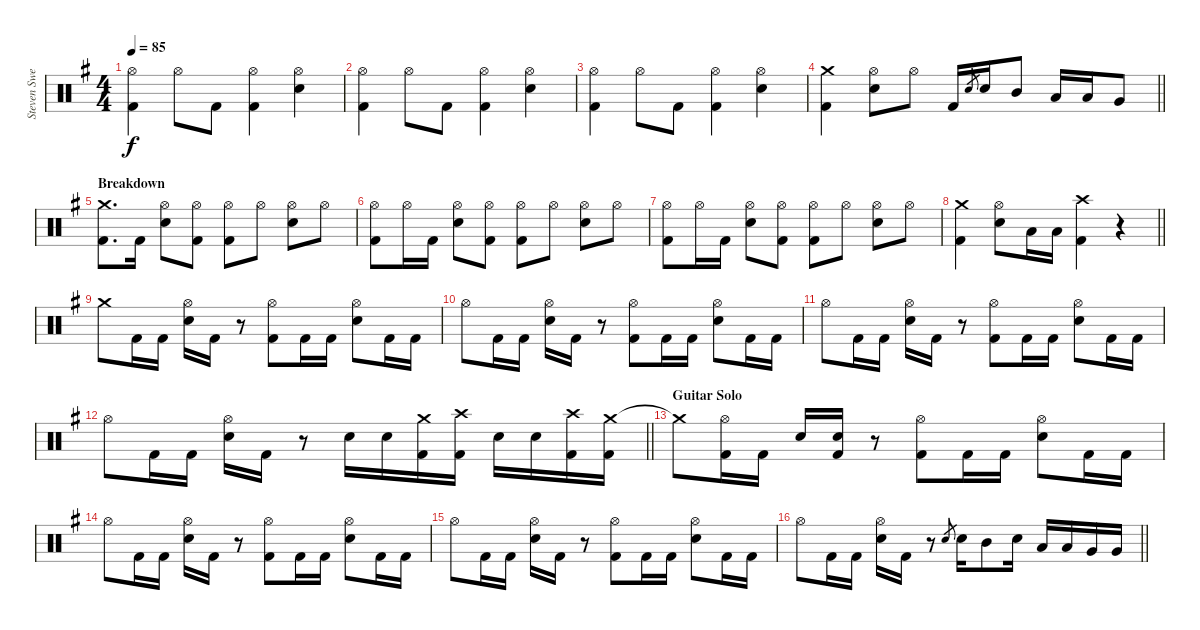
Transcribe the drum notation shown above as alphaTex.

\track ("Steven Sweet" "Steven Swe") {instrument percussion}
\staff {score}
\articulation defaults
\ts (4 4)
\tempo 85
\clef neutral
\ks g
("Hi-Hat (open)" "Kick (hit) 2").4{dy f} "Hi-Hat (open)".8 "Kick (hit) 2".8 ("Hi-Hat (open)" "Kick (hit) 2").4 ("Hi-Hat (open)" "Snare (hit) 2").4 |
("Hi-Hat (open)" "Kick (hit) 2").4 "Hi-Hat (open)".8 "Kick (hit) 2".8 ("Hi-Hat (open)" "Kick (hit) 2").4 ("Hi-Hat (open)" "Snare (hit) 2").4 |
("Hi-Hat (open)" "Kick (hit) 2").4 "Hi-Hat (open)".8 "Kick (hit) 2".8 ("Hi-Hat (open)" "Kick (hit) 2").4 ("Hi-Hat (open)" "Snare (hit) 2").4 |
\barLineRight lightlight
("Crash medium (hit)" "Kick (hit) 2").4 ("Hi-Hat (open)" "Snare (hit) 2").8 "Hi-Hat (open)".8 "Kick (hit) 2".16 "Snare (hit) 2".8{gr} "Snare (hit) 2".16 "Mid Tom (hit)".8 "Low Tom (hit)".16 "Low Tom (hit)".16 "Very Low Tom (hit)".8 |
\section ("" "Breakdown")
("Crash medium (hit)" "Kick (hit) 2").8{d} "Kick (hit) 2".16 ("Hi-Hat (open)" "Snare (hit) 2").8 ("Hi-Hat (open)" "Kick (hit) 2").8 ("Hi-Hat (open)" "Kick (hit) 2").8 "Hi-Hat (open)".8 ("Hi-Hat (open)" "Snare (hit) 2").8 "Hi-Hat (open)".8 |
("Hi-Hat (open)" "Kick (hit) 2").8 "Hi-Hat (open)".16 "Kick (hit) 2".16 ("Hi-Hat (open)" "Snare (hit) 2").8 ("Hi-Hat (open)" "Kick (hit) 2").8 ("Hi-Hat (open)" "Kick (hit) 2").8 "Hi-Hat (open)".8 ("Hi-Hat (open)" "Snare (hit) 2").8 "Hi-Hat (open)".8 |
("Hi-Hat (open)" "Kick (hit) 2").8 "Hi-Hat (open)".16 "Kick (hit) 2".16 ("Hi-Hat (open)" "Snare (hit) 2").8 ("Hi-Hat (open)" "Kick (hit) 2").8 ("Hi-Hat (open)" "Kick (hit) 2").8 "Hi-Hat (open)".8 ("Hi-Hat (open)" "Snare (hit) 2").8 "Hi-Hat (open)".8 |
\barLineRight lightlight
("Crash medium (hit)" "Kick (hit) 2").4 ("Hi-Hat (open)" "Snare (hit) 2").8 "Low Tom (hit)".16 "Low Tom (hit)".16 ("Crash high (hit)" "Kick (hit) 2").4 r.4 |
"Crash medium (hit)".8 "Kick (hit) 2".16 "Kick (hit) 2".16 ("Hi-Hat (open)" "Snare (hit) 2").16 "Kick (hit) 2".16 r.8 ("Hi-Hat (open)" "Kick (hit) 2").8 "Kick (hit) 2".16 "Kick (hit) 2".16 ("Hi-Hat (open)" "Snare (hit) 2").8 "Kick (hit) 2".16 "Kick (hit) 2".16 |
"Hi-Hat (open)".8 "Kick (hit) 2".16 "Kick (hit) 2".16 ("Hi-Hat (open)" "Snare (hit) 2").16 "Kick (hit) 2".16 r.8 ("Hi-Hat (open)" "Kick (hit) 2").8 "Kick (hit) 2".16 "Kick (hit) 2".16 ("Hi-Hat (open)" "Snare (hit) 2").8 "Kick (hit) 2".16 "Kick (hit) 2".16 |
"Hi-Hat (open)".8 "Kick (hit) 2".16 "Kick (hit) 2".16 ("Hi-Hat (open)" "Snare (hit) 2").16 "Kick (hit) 2".16 r.8 ("Hi-Hat (open)" "Kick (hit) 2").8 "Kick (hit) 2".16 "Kick (hit) 2".16 ("Hi-Hat (open)" "Snare (hit) 2").8 "Kick (hit) 2".16 "Kick (hit) 2".16 |
\barLineRight lightlight "Hi-Hat (open)".8 "Kick (hit) 2".16 "Kick (hit) 2".16
("Hi-Hat (open)" "Snare (hit) 2").16 "Kick (hit) 2".16 r.8 "Snare (hit) 2".16 "Snare (hit) 2".16 ("Crash medium (hit)" "Kick (hit) 2").16 ("Crash high (hit)" "Kick (hit) 2").16 "Snare (hit) 2".16 "Snare (hit) 2".16 ("Crash high (hit)" "Kick (hit) 2").16 ("Crash medium (hit)" "Kick (hit) 2").16 |
\section ("" "Guitar Solo")
"Crash medium (hit)"{t}.8 ("Hi-Hat (open)" "Kick (hit) 2").16 "Kick (hit) 2".16 "Snare (hit) 2".16 ("Snare (hit) 2" "Kick (hit) 2").16 r.8 ("Hi-Hat (open)" "Kick (hit) 2").8 "Kick (hit) 2".16 "Kick (hit) 2".16 ("Hi-Hat (open)" "Snare (hit) 2").8 "Kick (hit) 2".16 "Kick (hit) 2".16 |
"Hi-Hat (open)".8 "Kick (hit) 2".16 "Kick (hit) 2".16 ("Hi-Hat (open)" "Snare (hit) 2").16 "Kick (hit) 2".16 r.8 ("Hi-Hat (open)" "Kick (hit) 2").8 "Kick (hit) 2".16 "Kick (hit) 2".16 ("Hi-Hat (open)" "Snare (hit) 2").8 "Kick (hit) 2".16 "Kick (hit) 2".16 |
"Hi-Hat (open)".8 "Kick (hit) 2".16 "Kick (hit) 2".16 ("Hi-Hat (open)" "Snare (hit) 2").16 "Kick (hit) 2".16 r.8 ("Hi-Hat (open)" "Kick (hit) 2").8 "Kick (hit) 2".16 "Kick (hit) 2".16 ("Hi-Hat (open)" "Snare (hit) 2").8 "Kick (hit) 2".16 "Kick (hit) 2".16 |
\barLineRight lightlight "Hi-Hat (open)".8 "Kick (hit) 2".16 "Kick (hit) 2".16
("Hi-Hat (open)" "Snare (hit) 2").16 "Kick (hit) 2".16 r.8 "Snare (hit) 2".8{gr} "Snare (hit) 2".16 "Mid Tom (hit)".8 "Snare (hit) 2".16 "Low Tom (hit)".16 "Low Tom (hit)".16 "Very Low Tom (hit)".16 "Very Low Tom (hit)".16
